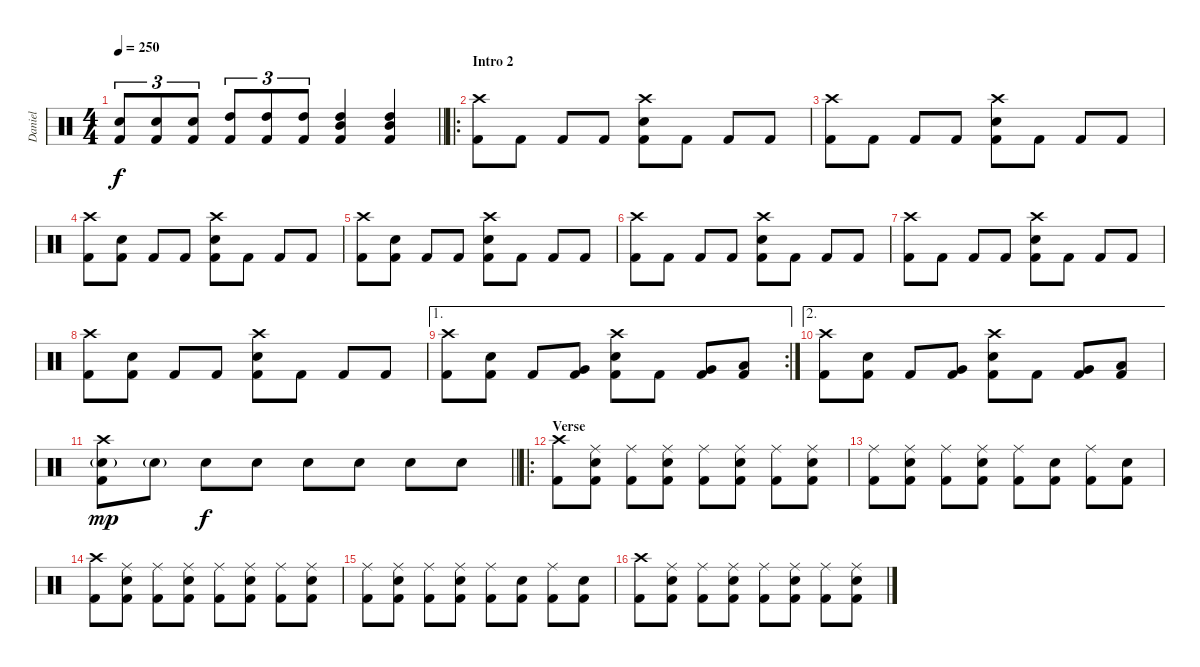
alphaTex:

\track ("Daniel" "Daniel") {instrument percussion}
\staff {score}
\articulation defaults
\ts (4 4)
\tempo 250
\clef neutral
\barLineRight lightlight
\ks c
("Snare (hit) 2" "Kick (hit) 2").8{tu (3 2) dy f} ("Snare (hit) 2" "Kick (hit) 2").8{tu (3 2)} ("Snare (hit) 2" "Kick (hit) 2").8{tu (3 2)} ("High Tom (hit)" "Kick (hit) 2").8{tu (3 2)} ("High Tom (hit)" "Kick (hit) 2").8{tu (3 2)} ("High Tom (hit)" "Kick (hit) 2").8{tu (3 2)} ("High Tom (hit)" "Mid Tom (hit)" "Kick (hit) 2").4 ("High Tom (hit)" "Mid Tom (hit)" "Kick (hit) 2").4 |
\ro
\section ("" "Intro 2")
("Crash high (hit)" "Kick (hit) 2").8 "Kick (hit) 2".8 "Kick (hit) 2".8 "Kick (hit) 2".8 ("Crash high (hit)" "Snare (hit) 2" "Kick (hit) 2").8 "Kick (hit) 2".8 "Kick (hit) 2".8 "Kick (hit) 2".8 |
("Crash high (hit)" "Kick (hit) 2").8 "Kick (hit) 2".8 "Kick (hit) 2".8 "Kick (hit) 2".8 ("Crash high (hit)" "Snare (hit) 2" "Kick (hit) 2").8 "Kick (hit) 2".8 "Kick (hit) 2".8 "Kick (hit) 2".8 |
("Crash high (hit)" "Kick (hit) 2").8 ("Snare (hit) 2" "Kick (hit) 2").8 "Kick (hit) 2".8 "Kick (hit) 2".8 ("Crash high (hit)" "Snare (hit) 2" "Kick (hit) 2").8 "Kick (hit) 2".8 "Kick (hit) 2".8 "Kick (hit) 2".8 |
("Crash high (hit)" "Kick (hit) 2").8 ("Snare (hit) 2" "Kick (hit) 2").8 "Kick (hit) 2".8 "Kick (hit) 2".8 ("Crash high (hit)" "Snare (hit) 2" "Kick (hit) 2").8 "Kick (hit) 2".8 "Kick (hit) 2".8 "Kick (hit) 2".8 |
("Crash high (hit)" "Kick (hit) 2").8 "Kick (hit) 2".8 "Kick (hit) 2".8 "Kick (hit) 2".8 ("Crash high (hit)" "Snare (hit) 2" "Kick (hit) 2").8 "Kick (hit) 2".8 "Kick (hit) 2".8 "Kick (hit) 2".8 |
("Crash high (hit)" "Kick (hit) 2").8 "Kick (hit) 2".8 "Kick (hit) 2".8 "Kick (hit) 2".8 ("Crash high (hit)" "Snare (hit) 2" "Kick (hit) 2").8 "Kick (hit) 2".8 "Kick (hit) 2".8 "Kick (hit) 2".8 |
("Crash high (hit)" "Kick (hit) 2").8 ("Snare (hit) 2" "Kick (hit) 2").8 "Kick (hit) 2".8 "Kick (hit) 2".8 ("Crash high (hit)" "Snare (hit) 2" "Kick (hit) 2").8 "Kick (hit) 2".8 "Kick (hit) 2".8 "Kick (hit) 2".8 |
\ae 1
\rc 2
("Crash high (hit)" "Kick (hit) 2").8 ("Snare (hit) 2" "Kick (hit) 2").8 "Kick (hit) 2".8 ("Very Low Tom (hit)" "Kick (hit) 2").8 ("Crash high (hit)" "Snare (hit) 2" "Kick (hit) 2").8 "Kick (hit) 2".8 ("Very Low Tom (hit)" "Kick (hit) 2").8 ("Low Floor Tom (hit)" "Kick (hit) 2").8 |
\ae 2
("Crash high (hit)" "Kick (hit) 2").8 ("Snare (hit) 2" "Kick (hit) 2").8 "Kick (hit) 2".8 ("Very Low Tom (hit)" "Kick (hit) 2").8 ("Crash high (hit)" "Snare (hit) 2" "Kick (hit) 2").8 "Kick (hit) 2".8 ("Very Low Tom (hit)" "Kick (hit) 2").8 ("Low Floor Tom (hit)" "Kick (hit) 2").8 |
\barLineRight lightlight
("Crash high (hit)" "Snare (hit) 2"{g} "Kick (hit) 2").8{dy mp} "Snare (hit) 2"{g}.8 "Snare (hit) 2".8{dy f} "Snare (hit) 2".8 "Snare (hit) 2".8 "Snare (hit) 2".8 "Snare (hit) 2".8 "Snare (hit) 2".8 |
\ro
\section ("" "Verse")
("Crash high (hit)" "Kick (hit) 2").8 ("Ride (middle)" "Snare (hit) 2" "Kick (hit) 2").8 ("Ride (middle)" "Kick (hit) 2").8 ("Ride (middle)" "Snare (hit) 2" "Kick (hit) 2").8 ("Ride (middle)" "Kick (hit) 2").8 ("Ride (middle)" "Snare (hit) 2" "Kick (hit) 2").8 ("Ride (middle)" "Kick (hit) 2").8 ("Ride (middle)" "Snare (hit) 2" "Kick (hit) 2").8 |
("Ride (middle)" "Kick (hit) 2").8 ("Ride (middle)" "Snare (hit) 2" "Kick (hit) 2").8 ("Ride (middle)" "Kick (hit) 2").8 ("Ride (middle)" "Snare (hit) 2" "Kick (hit) 2").8 ("Ride (middle)" "Kick (hit) 2").8 ("Snare (hit) 2" "Kick (hit) 2").8 ("Ride (middle)" "Kick (hit) 2").8 ("Snare (hit) 2" "Kick (hit) 2").8 |
("Crash high (hit)" "Kick (hit) 2").8 ("Ride (middle)" "Snare (hit) 2" "Kick (hit) 2").8 ("Ride (middle)" "Kick (hit) 2").8 ("Ride (middle)" "Snare (hit) 2" "Kick (hit) 2").8 ("Ride (middle)" "Kick (hit) 2").8 ("Ride (middle)" "Snare (hit) 2" "Kick (hit) 2").8 ("Ride (middle)" "Kick (hit) 2").8 ("Ride (middle)" "Snare (hit) 2" "Kick (hit) 2").8 |
("Ride (middle)" "Kick (hit) 2").8 ("Ride (middle)" "Snare (hit) 2" "Kick (hit) 2").8 ("Ride (middle)" "Kick (hit) 2").8 ("Ride (middle)" "Snare (hit) 2" "Kick (hit) 2").8 ("Ride (middle)" "Kick (hit) 2").8 ("Snare (hit) 2" "Kick (hit) 2").8 ("Ride (middle)" "Kick (hit) 2").8 ("Snare (hit) 2" "Kick (hit) 2").8 |
("Crash high (hit)" "Kick (hit) 2").8 ("Ride (middle)" "Snare (hit) 2" "Kick (hit) 2").8 ("Ride (middle)" "Kick (hit) 2").8 ("Ride (middle)" "Snare (hit) 2" "Kick (hit) 2").8 ("Ride (middle)" "Kick (hit) 2").8 ("Ride (middle)" "Snare (hit) 2" "Kick (hit) 2").8 ("Ride (middle)" "Kick (hit) 2").8 ("Ride (middle)" "Snare (hit) 2" "Kick (hit) 2").8
